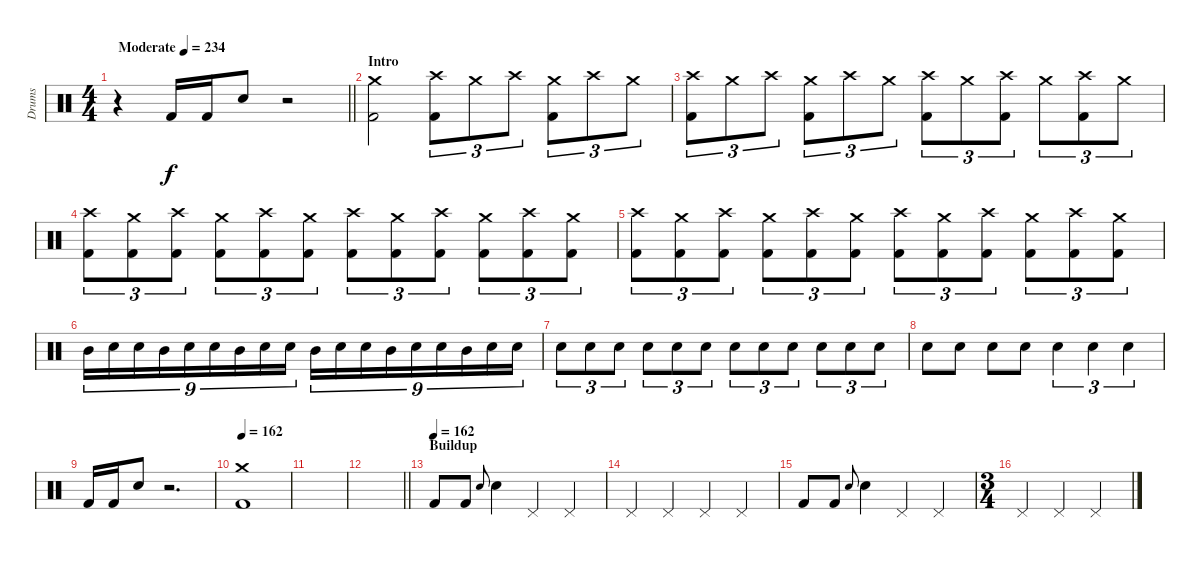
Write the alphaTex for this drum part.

\track ("Drums" "Drums") {instrument percussion}
\staff {score}
\articulation defaults
\ts (4 4)
\tempo (234 "Moderate")
\clef neutral
\barLineRight lightlight
\ks c
r.4{dy f} "Kick (hit) 2".16 "Kick (hit) 2".16 "Snare (hit) 2".8 r.2 |
\section ("" "Intro")
("Crash medium (hit)" "Kick (hit) 2").2 ("Crash high (hit)" "Kick (hit) 2").8{tu (3 2)} "Crash medium (hit)".8{tu (3 2)} "Crash high (hit)".8{tu (3 2)} ("Crash medium (hit)" "Kick (hit) 2").8{tu (3 2)} "Crash high (hit)".8{tu (3 2)} "Crash medium (hit)".8{tu (3 2)} |
("Crash high (hit)" "Kick (hit) 2").8{tu (3 2)} "Crash medium (hit)".8{tu (3 2)} "Crash high (hit)".8{tu (3 2)} ("Crash medium (hit)" "Kick (hit) 2").8{tu (3 2)} "Crash high (hit)".8{tu (3 2)} "Crash medium (hit)".8{tu (3 2)} ("Crash high (hit)" "Kick (hit) 2").8{tu (3 2)} "Crash medium (hit)".8{tu (3 2)} ("Crash high (hit)" "Kick (hit) 2").8{tu (3 2)} "Crash medium (hit)".8{tu (3 2)} ("Crash high (hit)" "Kick (hit) 2").8{tu (3 2)} "Crash medium (hit)".8{tu (3 2)} |
("Crash high (hit)" "Kick (hit) 2").8{tu (3 2)} ("Crash medium (hit)" "Kick (hit) 2").8{tu (3 2)} ("Crash high (hit)" "Kick (hit) 2").8{tu (3 2)} ("Crash medium (hit)" "Kick (hit) 2").8{tu (3 2)} ("Crash high (hit)" "Kick (hit) 2").8{tu (3 2)} ("Crash medium (hit)" "Kick (hit) 2").8{tu (3 2)} ("Crash high (hit)" "Kick (hit) 2").8{tu (3 2)} ("Crash medium (hit)" "Kick (hit) 2").8{tu (3 2)} ("Crash high (hit)" "Kick (hit) 2").8{tu (3 2)} ("Crash medium (hit)" "Kick (hit) 2").8{tu (3 2)} ("Crash high (hit)" "Kick (hit) 2").8{tu (3 2)} ("Crash medium (hit)" "Kick (hit) 2").8{tu (3 2)} |
("Crash high (hit)" "Kick (hit) 2").8{tu (3 2)} ("Crash medium (hit)" "Kick (hit) 2").8{tu (3 2)} ("Crash high (hit)" "Kick (hit) 2").8{tu (3 2)} ("Crash medium (hit)" "Kick (hit) 2").8{tu (3 2)} ("Crash high (hit)" "Kick (hit) 2").8{tu (3 2)} ("Crash medium (hit)" "Kick (hit) 2").8{tu (3 2)} ("Crash high (hit)" "Kick (hit) 2").8{tu (3 2)} ("Crash medium (hit)" "Kick (hit) 2").8{tu (3 2)} ("Crash high (hit)" "Kick (hit) 2").8{tu (3 2)} ("Crash medium (hit)" "Kick (hit) 2").8{tu (3 2)} ("Crash high (hit)" "Kick (hit) 2").8{tu (3 2)} ("Crash medium (hit)" "Kick (hit) 2").8{tu (3 2)} |
"Mid Tom (hit)".16{tu (9 8)} "Snare (hit) 2".16{tu (9 8)} "Snare (hit) 2".16{tu (9 8)} "Mid Tom (hit)".16{tu (9 8)} "Snare (hit) 2".16{tu (9 8)} "Snare (hit) 2".16{tu (9 8)} "Mid Tom (hit)".16{tu (9 8)} "Snare (hit) 2".16{tu (9 8)} "Snare (hit) 2".16{tu (9 8)} "Mid Tom (hit)".16{tu (9 8)} "Snare (hit) 2".16{tu (9 8)} "Snare (hit) 2".16{tu (9 8)} "Mid Tom (hit)".16{tu (9 8)} "Snare (hit) 2".16{tu (9 8)} "Snare (hit) 2".16{tu (9 8)} "Mid Tom (hit)".16{tu (9 8)} "Snare (hit) 2".16{tu (9 8)} "Snare (hit) 2".16{tu (9 8)} |
"Snare (hit) 2".8{tu (3 2)} "Snare (hit) 2".8{tu (3 2)} "Snare (hit) 2".8{tu (3 2)} "Snare (hit) 2".8{tu (3 2)} "Snare (hit) 2".8{tu (3 2)} "Snare (hit) 2".8{tu (3 2)} "Snare (hit) 2".8{tu (3 2)} "Snare (hit) 2".8{tu (3 2)} "Snare (hit) 2".8{tu (3 2)} "Snare (hit) 2".8{tu (3 2)} "Snare (hit) 2".8{tu (3 2)} "Snare (hit) 2".8{tu (3 2)} |
"Snare (hit) 2".8 "Snare (hit) 2".8 "Snare (hit) 2".8 "Snare (hit) 2".8 "Snare (hit) 2".4{tu (3 2)} "Snare (hit) 2".4{tu (3 2)} "Snare (hit) 2".4{tu (3 2)} |
"Kick (hit) 2".16 "Kick (hit) 2".16 "Snare (hit) 2".8 r.2{d} |
\tempo 162
("Crash medium (hit)" "Kick (hit) 2").1 |
|
\barLineRight lightlight
|
\section ("" "Buildup")
\tempo (162)
"Kick (hit) 2".8 "Kick (hit) 2".8 "Snare (hit) 2".8{gr onbeat} "Snare (hit) 2".4 "Pedal Hi-Hat (hit)".4 "Pedal Hi-Hat (hit)".4 |
"Pedal Hi-Hat (hit)".4 "Pedal Hi-Hat (hit)".4 "Pedal Hi-Hat (hit)".4 "Pedal Hi-Hat (hit)".4 |
"Kick (hit) 2".8 "Kick (hit) 2".8 "Snare (hit) 2".8{gr onbeat} "Snare (hit) 2".4 "Pedal Hi-Hat (hit)".4 "Pedal Hi-Hat (hit)".4 |
\ts (3 4)
"Pedal Hi-Hat (hit)".4 "Pedal Hi-Hat (hit)".4 "Pedal Hi-Hat (hit)".4
